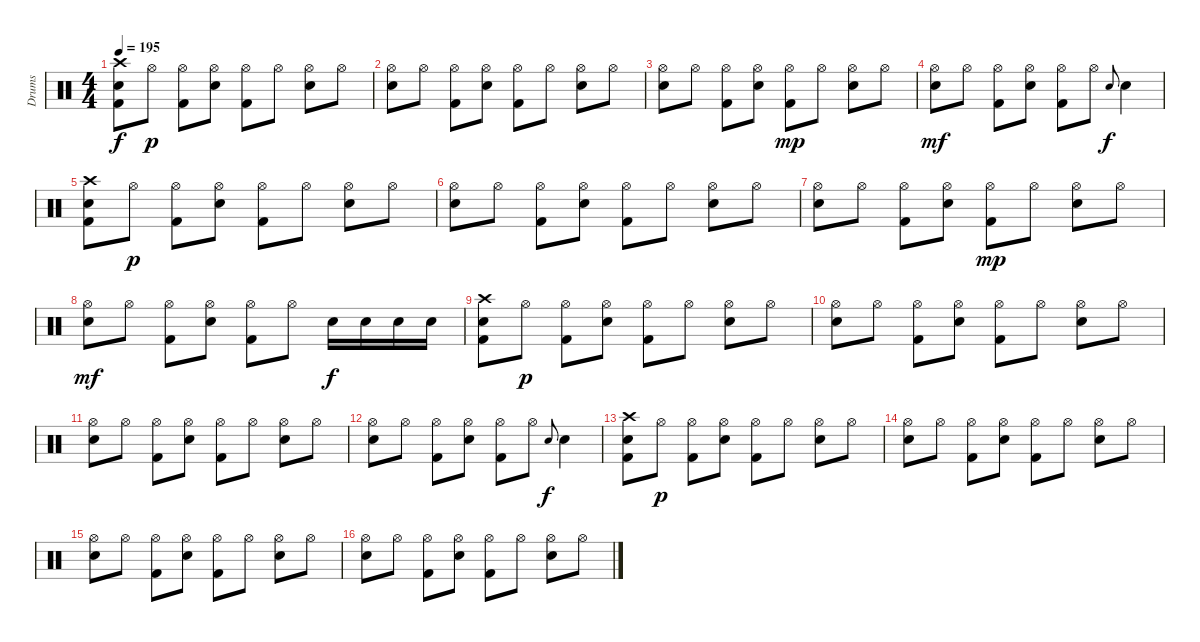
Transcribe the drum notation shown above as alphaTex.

\track ("Drums" "Drums") {instrument percussion}
\staff {score}
\articulation defaults
\ts (4 4)
\tempo 195
\clef neutral
\ks c
("Crash high (hit)" "Electric Snare (hit)" "Kick (hit) 2").8{dy f} "Hi-Hat (open)".8{dy p} ("Hi-Hat (open)" "Kick (hit) 2").8 ("Hi-Hat (open)" "Electric Snare (hit)").8 ("Hi-Hat (open)" "Kick (hit) 2").8 "Hi-Hat (open)".8 ("Hi-Hat (open)" "Electric Snare (hit)").8 "Hi-Hat (open)".8 |
("Hi-Hat (open)" "Electric Snare (hit)").8 "Hi-Hat (open)".8 ("Hi-Hat (open)" "Kick (hit) 2").8 ("Hi-Hat (open)" "Electric Snare (hit)").8 ("Hi-Hat (open)" "Kick (hit) 2").8 "Hi-Hat (open)".8 ("Hi-Hat (open)" "Electric Snare (hit)").8 "Hi-Hat (open)".8 |
("Hi-Hat (open)" "Electric Snare (hit)").8 "Hi-Hat (open)".8 ("Hi-Hat (open)" "Kick (hit) 2").8 ("Hi-Hat (open)" "Electric Snare (hit)").8 ("Hi-Hat (open)" "Kick (hit) 2").8{dy mp} "Hi-Hat (open)".8 ("Hi-Hat (open)" "Electric Snare (hit)").8 "Hi-Hat (open)".8 |
("Hi-Hat (open)" "Electric Snare (hit)").8{dy mf} "Hi-Hat (open)".8 ("Hi-Hat (open)" "Kick (hit) 2").8 ("Hi-Hat (open)" "Electric Snare (hit)").8 ("Hi-Hat (open)" "Kick (hit) 2").8 "Hi-Hat (open)".8 "Electric Snare (hit)".8{gr onbeat dy f} "Electric Snare (hit)".4 |
("Crash high (hit)" "Electric Snare (hit)" "Kick (hit) 2").8 "Hi-Hat (open)".8{dy p} ("Hi-Hat (open)" "Kick (hit) 2").8 ("Hi-Hat (open)" "Electric Snare (hit)").8 ("Hi-Hat (open)" "Kick (hit) 2").8 "Hi-Hat (open)".8 ("Hi-Hat (open)" "Electric Snare (hit)").8 "Hi-Hat (open)".8 |
("Hi-Hat (open)" "Electric Snare (hit)").8 "Hi-Hat (open)".8 ("Hi-Hat (open)" "Kick (hit) 2").8 ("Hi-Hat (open)" "Electric Snare (hit)").8 ("Hi-Hat (open)" "Kick (hit) 2").8 "Hi-Hat (open)".8 ("Hi-Hat (open)" "Electric Snare (hit)").8 "Hi-Hat (open)".8 |
("Hi-Hat (open)" "Electric Snare (hit)").8 "Hi-Hat (open)".8 ("Hi-Hat (open)" "Kick (hit) 2").8 ("Hi-Hat (open)" "Electric Snare (hit)").8 ("Hi-Hat (open)" "Kick (hit) 2").8{dy mp} "Hi-Hat (open)".8 ("Hi-Hat (open)" "Electric Snare (hit)").8 "Hi-Hat (open)".8 |
("Hi-Hat (open)" "Electric Snare (hit)").8{dy mf} "Hi-Hat (open)".8 ("Hi-Hat (open)" "Kick (hit) 2").8 ("Hi-Hat (open)" "Electric Snare (hit)").8 ("Hi-Hat (open)" "Kick (hit) 2").8 "Hi-Hat (open)".8 "Electric Snare (hit)".16{dy f} "Electric Snare (hit)".16 "Electric Snare (hit)".16 "Electric Snare (hit)".16 |
("Crash high (hit)" "Electric Snare (hit)" "Kick (hit) 2").8 "Hi-Hat (open)".8{dy p} ("Hi-Hat (open)" "Kick (hit) 2").8 ("Hi-Hat (open)" "Electric Snare (hit)").8 ("Hi-Hat (open)" "Kick (hit) 2").8 "Hi-Hat (open)".8 ("Hi-Hat (open)" "Electric Snare (hit)").8 "Hi-Hat (open)".8 |
("Hi-Hat (open)" "Electric Snare (hit)").8 "Hi-Hat (open)".8 ("Hi-Hat (open)" "Kick (hit) 2").8 ("Hi-Hat (open)" "Electric Snare (hit)").8 ("Hi-Hat (open)" "Kick (hit) 2").8 "Hi-Hat (open)".8 ("Hi-Hat (open)" "Electric Snare (hit)").8 "Hi-Hat (open)".8 |
("Hi-Hat (open)" "Electric Snare (hit)").8 "Hi-Hat (open)".8 ("Hi-Hat (open)" "Kick (hit) 2").8 ("Hi-Hat (open)" "Electric Snare (hit)").8 ("Hi-Hat (open)" "Kick (hit) 2").8 "Hi-Hat (open)".8 ("Hi-Hat (open)" "Electric Snare (hit)").8 "Hi-Hat (open)".8 |
("Hi-Hat (open)" "Electric Snare (hit)").8 "Hi-Hat (open)".8 ("Hi-Hat (open)" "Kick (hit) 2").8 ("Hi-Hat (open)" "Electric Snare (hit)").8 ("Hi-Hat (open)" "Kick (hit) 2").8 "Hi-Hat (open)".8 "Electric Snare (hit)".8{gr onbeat dy f} "Electric Snare (hit)".4 |
("Crash high (hit)" "Electric Snare (hit)" "Kick (hit) 2").8 "Hi-Hat (open)".8{dy p} ("Hi-Hat (open)" "Kick (hit) 2").8 ("Hi-Hat (open)" "Electric Snare (hit)").8 ("Hi-Hat (open)" "Kick (hit) 2").8 "Hi-Hat (open)".8 ("Hi-Hat (open)" "Electric Snare (hit)").8 "Hi-Hat (open)".8 |
("Hi-Hat (open)" "Electric Snare (hit)").8 "Hi-Hat (open)".8 ("Hi-Hat (open)" "Kick (hit) 2").8 ("Hi-Hat (open)" "Electric Snare (hit)").8 ("Hi-Hat (open)" "Kick (hit) 2").8 "Hi-Hat (open)".8 ("Hi-Hat (open)" "Electric Snare (hit)").8 "Hi-Hat (open)".8 |
("Hi-Hat (open)" "Electric Snare (hit)").8 "Hi-Hat (open)".8 ("Hi-Hat (open)" "Kick (hit) 2").8 ("Hi-Hat (open)" "Electric Snare (hit)").8 ("Hi-Hat (open)" "Kick (hit) 2").8 "Hi-Hat (open)".8 ("Hi-Hat (open)" "Electric Snare (hit)").8 "Hi-Hat (open)".8 |
("Hi-Hat (open)" "Electric Snare (hit)").8 "Hi-Hat (open)".8 ("Hi-Hat (open)" "Kick (hit) 2").8 ("Hi-Hat (open)" "Electric Snare (hit)").8 ("Hi-Hat (open)" "Kick (hit) 2").8 "Hi-Hat (open)".8 ("Hi-Hat (open)" "Electric Snare (hit)").8 "Hi-Hat (open)".8
